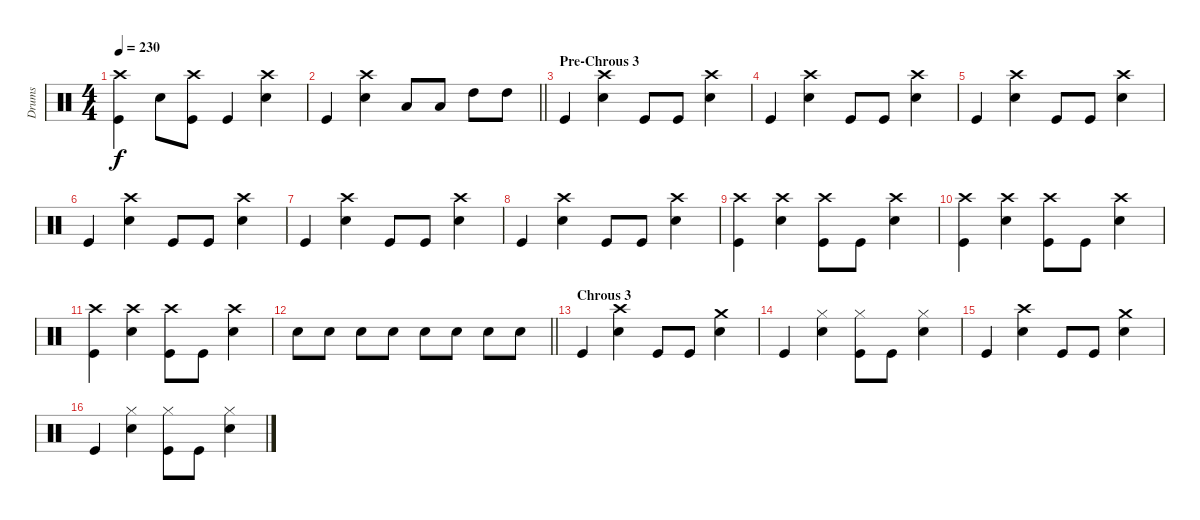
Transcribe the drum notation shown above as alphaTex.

\track ("Drums" "Drums") {instrument percussion}
\staff {score}
\articulation defaults
\ts (4 4)
\tempo 230
\clef neutral
\ks c
("Crash high (hit)" "Kick (hit)").4{dy f} "Snare (hit) 2".8 ("Crash high (hit)" "Kick (hit)").8 "Kick (hit)".4 ("Crash high (hit)" "Snare (hit) 2").4 |
\barLineRight lightlight "Kick (hit)".4
("Crash high (hit)" "Snare (hit) 2").4 "Low Tom (hit)".8 "Low Tom (hit)".8 "High Tom (hit)".8 "High Tom (hit)".8 |
\section ("" "Pre-Chrous 3")
"Kick (hit)".4 ("Crash high (hit)" "Snare (hit) 2").4 "Kick (hit)".8 "Kick (hit)".8 ("Crash high (hit)" "Snare (hit) 2").4 |
"Kick (hit)".4 ("Crash high (hit)" "Snare (hit) 2").4 "Kick (hit)".8 "Kick (hit)".8 ("Crash high (hit)" "Snare (hit) 2").4 |
"Kick (hit)".4 ("Crash high (hit)" "Snare (hit) 2").4 "Kick (hit)".8 "Kick (hit)".8 ("Crash high (hit)" "Snare (hit) 2").4 |
"Kick (hit)".4 ("Crash high (hit)" "Snare (hit) 2").4 "Kick (hit)".8 "Kick (hit)".8 ("Crash high (hit)" "Snare (hit) 2").4 |
"Kick (hit)".4 ("Crash high (hit)" "Snare (hit) 2").4 "Kick (hit)".8 "Kick (hit)".8 ("Crash high (hit)" "Snare (hit) 2").4 |
"Kick (hit)".4 ("Crash high (hit)" "Snare (hit) 2").4 "Kick (hit)".8 "Kick (hit)".8 ("Crash high (hit)" "Snare (hit) 2").4 |
("Crash high (hit)" "Kick (hit)").4 ("Crash high (hit)" "Snare (hit) 2").4 ("Crash high (hit)" "Kick (hit)").8 "Kick (hit)".8 ("Crash high (hit)" "Snare (hit) 2").4 |
("Crash high (hit)" "Kick (hit)").4 ("Crash high (hit)" "Snare (hit) 2").4 ("Crash high (hit)" "Kick (hit)").8 "Kick (hit)".8 ("Crash high (hit)" "Snare (hit) 2").4 |
("Crash high (hit)" "Kick (hit)").4 ("Crash high (hit)" "Snare (hit) 2").4 ("Crash high (hit)" "Kick (hit)").8 "Kick (hit)".8 ("Crash high (hit)" "Snare (hit) 2").4 |
\barLineRight lightlight "Snare (hit) 2".8 "Snare (hit) 2".8 "Snare (hit) 2".8 "Snare (hit) 2".8 "Snare (hit) 2".8 "Snare (hit) 2".8 "Snare (hit) 2".8 "Snare (hit) 2".8
|
\section ("" "Chrous 3")
"Kick (hit)".4 ("Crash high (hit)" "Snare (hit) 2").4 "Kick (hit)".8 "Kick (hit)".8 ("Crash medium (hit)" "Snare (hit) 2").4 |
"Kick (hit)".4 ("Hi-Hat (closed)" "Snare (hit) 2").4 ("Hi-Hat (closed)" "Kick (hit)").8 "Kick (hit)".8 ("Hi-Hat (closed)" "Snare (hit) 2").4 |
"Kick (hit)".4 ("Crash high (hit)" "Snare (hit) 2").4 "Kick (hit)".8 "Kick (hit)".8 ("Crash medium (hit)" "Snare (hit) 2").4 |
"Kick (hit)".4 ("Hi-Hat (closed)" "Snare (hit) 2").4 ("Hi-Hat (closed)" "Kick (hit)").8 "Kick (hit)".8 ("Hi-Hat (closed)" "Snare (hit) 2").4
